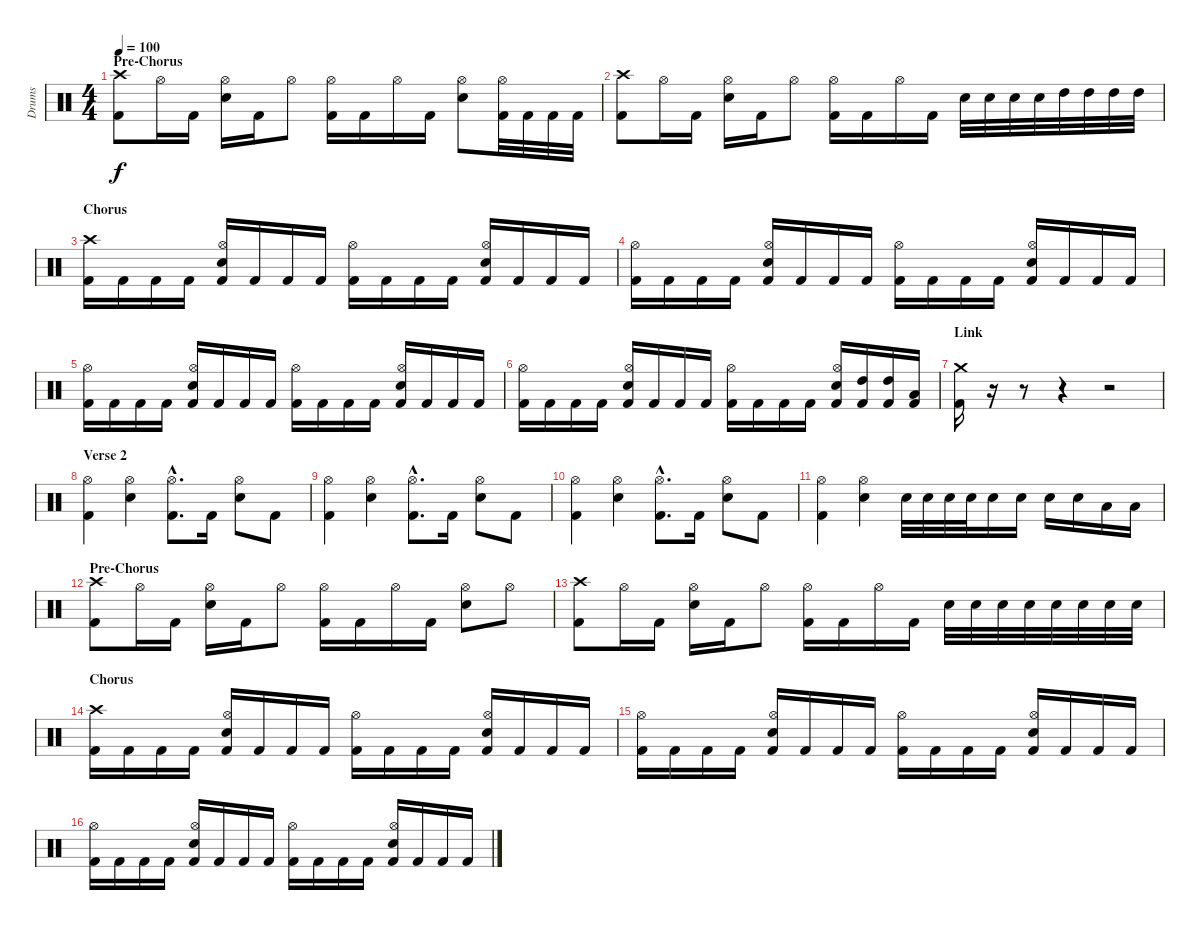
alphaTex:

\track ("Drums" "Drums") {instrument percussion}
\staff {score}
\articulation defaults
\ts (4 4)
\section ("" "Pre-Chorus")
\tempo 100
\clef neutral
\ks c
("Crash high (hit)" "Kick (hit) 2").8{dy f} "Hi-Hat (open)".16 "Kick (hit) 2".16 ("Hi-Hat (open)" "Snare (hit) 2").16 "Kick (hit) 2".16 "Hi-Hat (open)".8 ("Hi-Hat (open)" "Kick (hit) 2").16 "Kick (hit) 2".16 "Hi-Hat (open)".16 "Kick (hit) 2".16 ("Hi-Hat (open)" "Snare (hit) 2").8 ("Hi-Hat (open)" "Kick (hit) 2").32 "Kick (hit) 2".32 "Kick (hit) 2".32 "Kick (hit) 2".32 |
("Crash high (hit)" "Kick (hit) 2").8 "Hi-Hat (open)".16 "Kick (hit) 2".16 ("Hi-Hat (open)" "Snare (hit) 2").16 "Kick (hit) 2".16 "Hi-Hat (open)".8 ("Hi-Hat (open)" "Kick (hit) 2").16 "Kick (hit) 2".16 "Hi-Hat (open)".16 "Kick (hit) 2".16 "Snare (hit) 2".32 "Snare (hit) 2".32 "Snare (hit) 2".32 "Snare (hit) 2".32 "High Tom (hit)".32 "High Tom (hit)".32 "High Tom (hit)".32 "High Tom (hit)".32 |
\section ("" "Chorus")
("Crash high (hit)" "Kick (hit) 2").16 "Kick (hit) 2".16 "Kick (hit) 2".16 "Kick (hit) 2".16 ("Hi-Hat (open)" "Snare (hit) 2" "Kick (hit) 2").16 "Kick (hit) 2".16 "Kick (hit) 2".16 "Kick (hit) 2".16 ("Hi-Hat (open)" "Kick (hit) 2").16 "Kick (hit) 2".16 "Kick (hit) 2".16 "Kick (hit) 2".16 ("Hi-Hat (open)" "Snare (hit) 2" "Kick (hit) 2").16 "Kick (hit) 2".16 "Kick (hit) 2".16 "Kick (hit) 2".16 |
("Hi-Hat (open)" "Kick (hit) 2").16 "Kick (hit) 2".16 "Kick (hit) 2".16 "Kick (hit) 2".16 ("Hi-Hat (open)" "Snare (hit) 2" "Kick (hit) 2").16 "Kick (hit) 2".16 "Kick (hit) 2".16 "Kick (hit) 2".16 ("Hi-Hat (open)" "Kick (hit) 2").16 "Kick (hit) 2".16 "Kick (hit) 2".16 "Kick (hit) 2".16 ("Hi-Hat (open)" "Snare (hit) 2" "Kick (hit) 2").16 "Kick (hit) 2".16 "Kick (hit) 2".16 "Kick (hit) 2".16 |
("Hi-Hat (open)" "Kick (hit) 2").16 "Kick (hit) 2".16 "Kick (hit) 2".16 "Kick (hit) 2".16 ("Hi-Hat (open)" "Snare (hit) 2" "Kick (hit) 2").16 "Kick (hit) 2".16 "Kick (hit) 2".16 "Kick (hit) 2".16 ("Hi-Hat (open)" "Kick (hit) 2").16 "Kick (hit) 2".16 "Kick (hit) 2".16 "Kick (hit) 2".16 ("Hi-Hat (open)" "Snare (hit) 2" "Kick (hit) 2").16 "Kick (hit) 2".16 "Kick (hit) 2".16 "Kick (hit) 2".16 |
("Hi-Hat (open)" "Kick (hit) 2").16 "Kick (hit) 2".16 "Kick (hit) 2".16 "Kick (hit) 2".16 ("Hi-Hat (open)" "Snare (hit) 2" "Kick (hit) 2").16 "Kick (hit) 2".16 "Kick (hit) 2".16 "Kick (hit) 2".16 ("Hi-Hat (open)" "Kick (hit) 2").16 "Kick (hit) 2".16 "Kick (hit) 2".16 "Kick (hit) 2".16 ("Hi-Hat (open)" "Snare (hit) 2" "Kick (hit) 2").16 ("High Tom (hit)" "Kick (hit) 2").16 ("High Tom (hit)" "Kick (hit) 2").16 ("Low Tom (hit)" "Kick (hit) 2").16 |
\section ("" "Link")
("Crash medium (hit)" "Kick (hit) 2").16 r.16 r.8 r.4 r.2 |
\section ("" "Verse 2")
("Hi-Hat (open)" "Kick (hit) 2").4 ("Hi-Hat (open)" "Snare (hit) 2").4 ("Hi-Hat (open)"{hac} "Kick (hit) 2"{hac}).8{d} "Kick (hit) 2".16 ("Hi-Hat (open)" "Snare (hit) 2").8 "Kick (hit) 2".8 |
("Hi-Hat (open)" "Kick (hit) 2").4 ("Hi-Hat (open)" "Snare (hit) 2").4 ("Hi-Hat (open)"{hac} "Kick (hit) 2"{hac}).8{d} "Kick (hit) 2".16 ("Hi-Hat (open)" "Snare (hit) 2").8 "Kick (hit) 2".8 |
("Hi-Hat (open)" "Kick (hit) 2").4 ("Hi-Hat (open)" "Snare (hit) 2").4 ("Hi-Hat (open)"{hac} "Kick (hit) 2"{hac}).8{d} "Kick (hit) 2".16 ("Hi-Hat (open)" "Snare (hit) 2").8 "Kick (hit) 2".8 |
("Hi-Hat (open)" "Kick (hit) 2").4 ("Hi-Hat (open)" "Snare (hit) 2").4 "Snare (hit) 2".32 "Snare (hit) 2".32 "Snare (hit) 2".32 "Snare (hit) 2".32 "Snare (hit) 2".16 "Snare (hit) 2".16 "Snare (hit) 2".16 "Snare (hit) 2".16 "Low Tom (hit)".16 "Low Tom (hit)".16 |
\section ("" "Pre-Chorus")
("Crash high (hit)" "Kick (hit) 2").8 "Hi-Hat (open)".16 "Kick (hit) 2".16 ("Hi-Hat (open)" "Snare (hit) 2").16 "Kick (hit) 2".16 "Hi-Hat (open)".8 ("Hi-Hat (open)" "Kick (hit) 2").16 "Kick (hit) 2".16 "Hi-Hat (open)".16 "Kick (hit) 2".16 ("Hi-Hat (open)" "Snare (hit) 2").8 "Hi-Hat (open)".8 |
("Crash high (hit)" "Kick (hit) 2").8 "Hi-Hat (open)".16 "Kick (hit) 2".16 ("Hi-Hat (open)" "Snare (hit) 2").16 "Kick (hit) 2".16 "Hi-Hat (open)".8 ("Hi-Hat (open)" "Kick (hit) 2").16 "Kick (hit) 2".16 "Hi-Hat (open)".16 "Kick (hit) 2".16 "Snare (hit) 2".32 "Snare (hit) 2".32 "Snare (hit) 2".32 "Snare (hit) 2".32 "Snare (hit) 2".32 "Snare (hit) 2".32 "Snare (hit) 2".32 "Snare (hit) 2".32 |
\section ("" "Chorus")
("Crash high (hit)" "Kick (hit) 2").16 "Kick (hit) 2".16 "Kick (hit) 2".16 "Kick (hit) 2".16 ("Hi-Hat (open)" "Snare (hit) 2" "Kick (hit) 2").16 "Kick (hit) 2".16 "Kick (hit) 2".16 "Kick (hit) 2".16 ("Hi-Hat (open)" "Kick (hit) 2").16 "Kick (hit) 2".16 "Kick (hit) 2".16 "Kick (hit) 2".16 ("Hi-Hat (open)" "Snare (hit) 2" "Kick (hit) 2").16 "Kick (hit) 2".16 "Kick (hit) 2".16 "Kick (hit) 2".16 |
("Hi-Hat (open)" "Kick (hit) 2").16 "Kick (hit) 2".16 "Kick (hit) 2".16 "Kick (hit) 2".16 ("Hi-Hat (open)" "Snare (hit) 2" "Kick (hit) 2").16 "Kick (hit) 2".16 "Kick (hit) 2".16 "Kick (hit) 2".16 ("Hi-Hat (open)" "Kick (hit) 2").16 "Kick (hit) 2".16 "Kick (hit) 2".16 "Kick (hit) 2".16 ("Hi-Hat (open)" "Snare (hit) 2" "Kick (hit) 2").16 "Kick (hit) 2".16 "Kick (hit) 2".16 "Kick (hit) 2".16 |
("Hi-Hat (open)" "Kick (hit) 2").16 "Kick (hit) 2".16 "Kick (hit) 2".16 "Kick (hit) 2".16 ("Hi-Hat (open)" "Snare (hit) 2" "Kick (hit) 2").16 "Kick (hit) 2".16 "Kick (hit) 2".16 "Kick (hit) 2".16 ("Hi-Hat (open)" "Kick (hit) 2").16 "Kick (hit) 2".16 "Kick (hit) 2".16 "Kick (hit) 2".16 ("Hi-Hat (open)" "Snare (hit) 2" "Kick (hit) 2").16 "Kick (hit) 2".16 "Kick (hit) 2".16 "Kick (hit) 2".16
